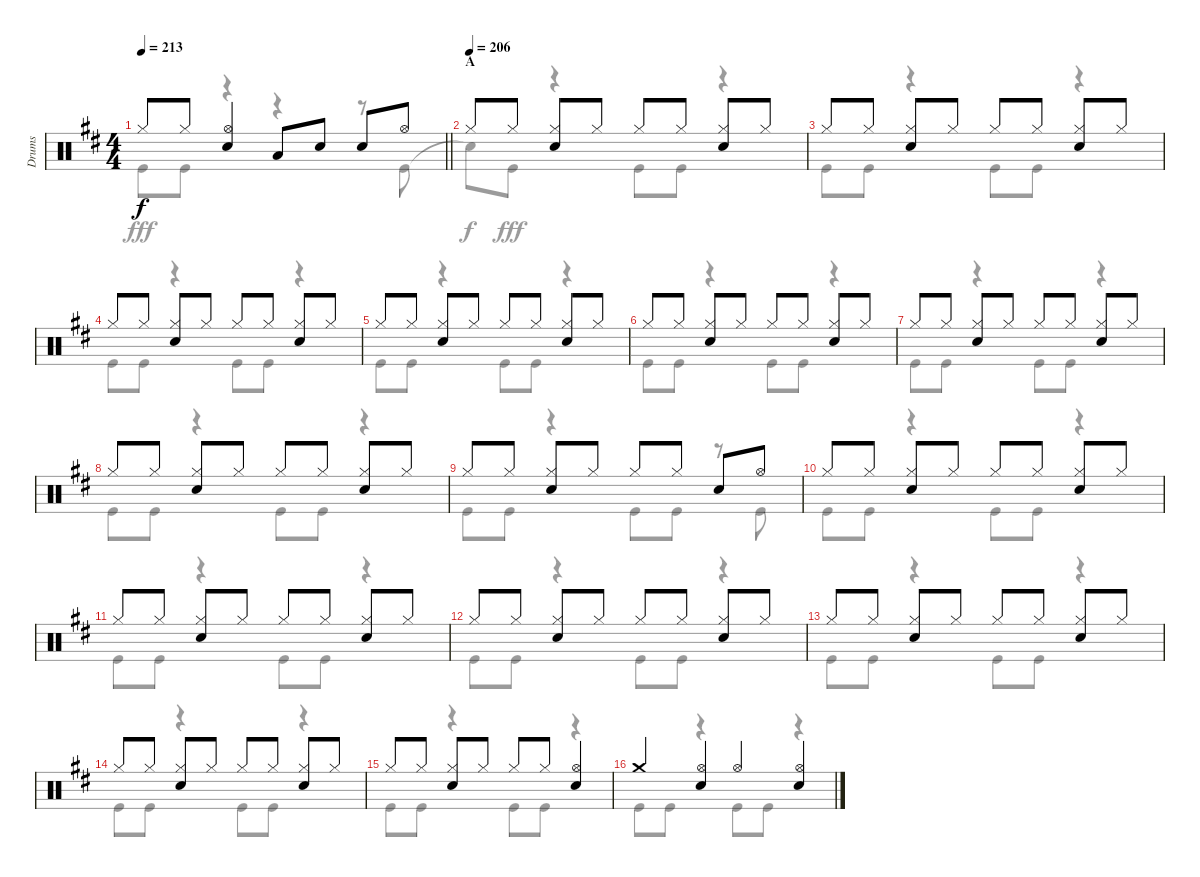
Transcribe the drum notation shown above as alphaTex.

\track ("Drums" "Drums") {instrument percussion}
\staff {score}
\articulation defaults
\voice
\ts (4 4)
\tempo 213
\clef neutral
\barLineRight lightlight
\ks d "Hi-Hat (closed)".8{dy f} "Hi-Hat (closed)".8
("Hi-Hat (open)" "Snare (hit) 2").4 "Low Tom (hit)".8 "Snare (hit) 2".8 "Snare (hit) 2".8 "Hi-Hat (open)".8 |
\section ("" "A")
\tempo (206)
"Hi-Hat (closed)".8 "Hi-Hat (closed)".8 ("Hi-Hat (closed)" "Snare (hit) 2").8 "Hi-Hat (closed)".8 "Hi-Hat (closed)".8 "Hi-Hat (closed)".8 ("Hi-Hat (closed)" "Snare (hit) 2").8 "Hi-Hat (closed)".8 |
"Hi-Hat (closed)".8 "Hi-Hat (closed)".8 ("Hi-Hat (closed)" "Snare (hit) 2").8 "Hi-Hat (closed)".8 "Hi-Hat (closed)".8 "Hi-Hat (closed)".8 ("Hi-Hat (closed)" "Snare (hit) 2").8 "Hi-Hat (closed)".8 |
"Hi-Hat (closed)".8 "Hi-Hat (closed)".8 ("Hi-Hat (closed)" "Snare (hit) 2").8 "Hi-Hat (closed)".8 "Hi-Hat (closed)".8 "Hi-Hat (closed)".8 ("Hi-Hat (closed)" "Snare (hit) 2").8 "Hi-Hat (closed)".8 |
"Hi-Hat (closed)".8 "Hi-Hat (closed)".8 ("Hi-Hat (closed)" "Snare (hit) 2").8 "Hi-Hat (closed)".8 "Hi-Hat (closed)".8 "Hi-Hat (closed)".8 ("Hi-Hat (closed)" "Snare (hit) 2").8 "Hi-Hat (closed)".8 |
"Hi-Hat (closed)".8 "Hi-Hat (closed)".8 ("Hi-Hat (closed)" "Snare (hit) 2").8 "Hi-Hat (closed)".8 "Hi-Hat (closed)".8 "Hi-Hat (closed)".8 ("Hi-Hat (closed)" "Snare (hit) 2").8 "Hi-Hat (closed)".8 |
"Hi-Hat (closed)".8 "Hi-Hat (closed)".8 ("Hi-Hat (closed)" "Snare (hit) 2").8 "Hi-Hat (closed)".8 "Hi-Hat (closed)".8 "Hi-Hat (closed)".8 ("Hi-Hat (closed)" "Snare (hit) 2").8 "Hi-Hat (closed)".8 |
"Hi-Hat (closed)".8 "Hi-Hat (closed)".8 ("Hi-Hat (closed)" "Snare (hit) 2").8 "Hi-Hat (closed)".8 "Hi-Hat (closed)".8 "Hi-Hat (closed)".8 ("Hi-Hat (closed)" "Snare (hit) 2").8 "Hi-Hat (closed)".8 |
"Hi-Hat (closed)".8 "Hi-Hat (closed)".8 ("Hi-Hat (closed)" "Snare (hit) 2").8 "Hi-Hat (closed)".8 "Hi-Hat (closed)".8 "Hi-Hat (closed)".8 "Snare (hit) 2".8 "Hi-Hat (open)".8 |
"Hi-Hat (closed)".8 "Hi-Hat (closed)".8 ("Hi-Hat (closed)" "Snare (hit) 2").8 "Hi-Hat (closed)".8 "Hi-Hat (closed)".8 "Hi-Hat (closed)".8 ("Hi-Hat (closed)" "Snare (hit) 2").8 "Hi-Hat (closed)".8 |
"Hi-Hat (closed)".8 "Hi-Hat (closed)".8 ("Hi-Hat (closed)" "Snare (hit) 2").8 "Hi-Hat (closed)".8 "Hi-Hat (closed)".8 "Hi-Hat (closed)".8 ("Hi-Hat (closed)" "Snare (hit) 2").8 "Hi-Hat (closed)".8 |
"Hi-Hat (closed)".8 "Hi-Hat (closed)".8 ("Hi-Hat (closed)" "Snare (hit) 2").8 "Hi-Hat (closed)".8 "Hi-Hat (closed)".8 "Hi-Hat (closed)".8 ("Hi-Hat (closed)" "Snare (hit) 2").8 "Hi-Hat (closed)".8 |
"Hi-Hat (closed)".8 "Hi-Hat (closed)".8 ("Hi-Hat (closed)" "Snare (hit) 2").8 "Hi-Hat (closed)".8 "Hi-Hat (closed)".8 "Hi-Hat (closed)".8 ("Hi-Hat (closed)" "Snare (hit) 2").8 "Hi-Hat (closed)".8 |
"Hi-Hat (closed)".8 "Hi-Hat (closed)".8 ("Hi-Hat (closed)" "Snare (hit) 2").8 "Hi-Hat (closed)".8 "Hi-Hat (closed)".8 "Hi-Hat (closed)".8 ("Hi-Hat (closed)" "Snare (hit) 2").8 "Hi-Hat (closed)".8 |
"Hi-Hat (closed)".8 "Hi-Hat (closed)".8 ("Hi-Hat (closed)" "Snare (hit) 2").8 "Hi-Hat (closed)".8 "Hi-Hat (closed)".8 "Hi-Hat (closed)".8 ("Hi-Hat (open)" "Snare (hit) 2").4 |
"Crash medium (hit)".4 ("Hi-Hat (open)" "Snare (hit) 2").4 "Hi-Hat (open)".4 ("Hi-Hat (open)" "Snare (hit) 2").4
\voice
\clef neutral
\ottava regular
\simile none
\barLineRight lightlight
\ks d "Kick (hit)".8{dy fff} "Kick (hit)".8
r.4 r.4 r.8 "Kick (hit)".8 |
"Snare (hit)"{t}.8{dy f} "Kick (hit)".8{dy fff} r.4 "Kick (hit)".8 "Kick (hit)".8 r.4 |
"Kick (hit)".8 "Kick (hit)".8 r.4 "Kick (hit)".8 "Kick (hit)".8 r.4 |
"Kick (hit)".8 "Kick (hit)".8 r.4 "Kick (hit)".8 "Kick (hit)".8 r.4 |
"Kick (hit)".8 "Kick (hit)".8 r.4 "Kick (hit)".8 "Kick (hit)".8 r.4 |
"Kick (hit)".8 "Kick (hit)".8 r.4 "Kick (hit)".8 "Kick (hit)".8 r.4 |
"Kick (hit)".8 "Kick (hit)".8 r.4 "Kick (hit)".8 "Kick (hit)".8 r.4 |
"Kick (hit)".8 "Kick (hit)".8 r.4 "Kick (hit)".8 "Kick (hit)".8 r.4 |
"Kick (hit)".8 "Kick (hit)".8 r.4 "Kick (hit)".8 "Kick (hit)".8 r.8 "Kick (hit)".8 |
"Kick (hit)".8 "Kick (hit)".8 r.4 "Kick (hit)".8 "Kick (hit)".8 r.4 |
"Kick (hit)".8 "Kick (hit)".8 r.4 "Kick (hit)".8 "Kick (hit)".8 r.4 |
"Kick (hit)".8 "Kick (hit)".8 r.4 "Kick (hit)".8 "Kick (hit)".8 r.4 |
"Kick (hit)".8 "Kick (hit)".8 r.4 "Kick (hit)".8 "Kick (hit)".8 r.4 |
"Kick (hit)".8 "Kick (hit)".8 r.4 "Kick (hit)".8 "Kick (hit)".8 r.4 |
"Kick (hit)".8 "Kick (hit)".8 r.4 "Kick (hit)".8 "Kick (hit)".8 r.4 |
"Kick (hit)".8 "Kick (hit)".8 r.4 "Kick (hit)".8 "Kick (hit)".8 r.4
